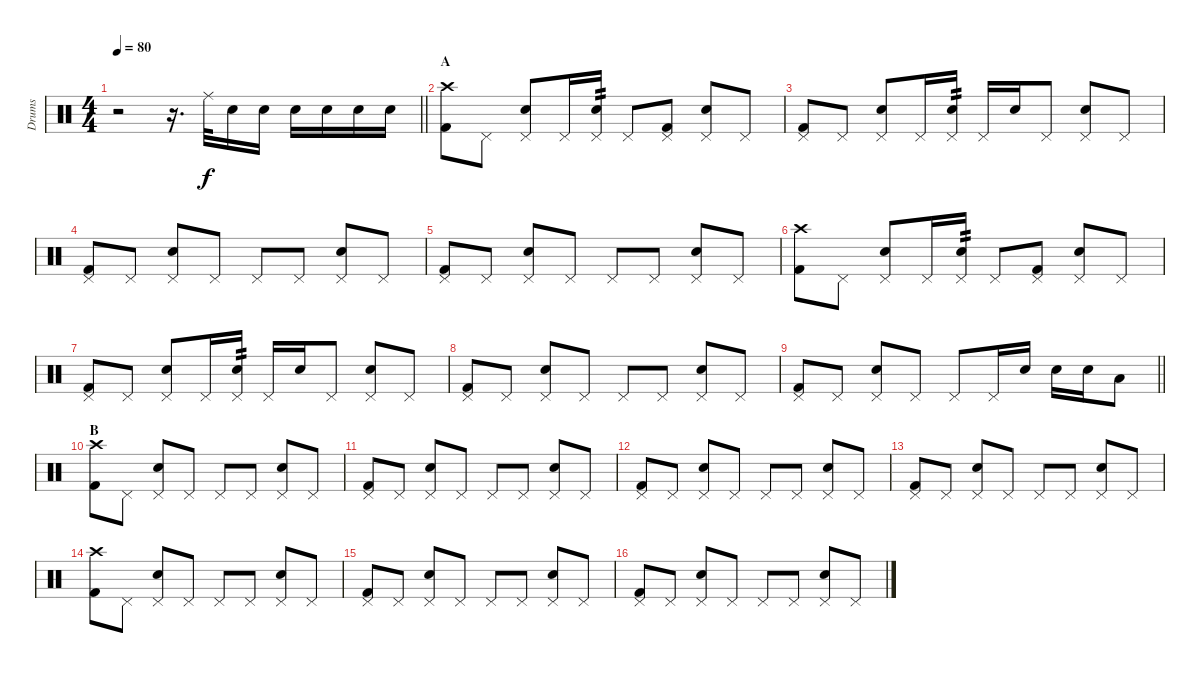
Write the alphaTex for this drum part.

\track ("Drums" "Drums") {instrument percussion}
\staff {score}
\articulation defaults
\ts (4 4)
\tempo 80
\clef neutral
\barLineRight lightlight
\ks c
r.2{dy f} r.16{d} "Ride (middle)".32 "Snare (hit) 2".16 "Snare (hit) 2".16 "Snare (hit) 2".16 "Snare (hit) 2".16 "Snare (hit) 2".16 "Snare (hit) 2".16 |
\section ("" "A")
("Crash high (hit)" "Kick (hit) 2").8 "Pedal Hi-Hat (hit)".8 ("Pedal Hi-Hat (hit)" "Snare (hit) 2").8 "Pedal Hi-Hat (hit)".16 ("Pedal Hi-Hat (hit)" "Snare (hit) 2").16{tp 2} "Pedal Hi-Hat (hit)".8 ("Pedal Hi-Hat (hit)" "Kick (hit) 2").8 ("Pedal Hi-Hat (hit)" "Snare (hit) 2").8 "Pedal Hi-Hat (hit)".8 |
("Pedal Hi-Hat (hit)" "Kick (hit) 2").8 "Pedal Hi-Hat (hit)".8 ("Pedal Hi-Hat (hit)" "Snare (hit) 2").8 "Pedal Hi-Hat (hit)".16 ("Pedal Hi-Hat (hit)" "Snare (hit) 2").16{tp 2} "Pedal Hi-Hat (hit)".16 "Snare (hit) 2".16 "Pedal Hi-Hat (hit)".8 ("Pedal Hi-Hat (hit)" "Snare (hit) 2").8 "Pedal Hi-Hat (hit)".8 |
("Pedal Hi-Hat (hit)" "Kick (hit) 2").8 "Pedal Hi-Hat (hit)".8 ("Pedal Hi-Hat (hit)" "Snare (hit) 2").8 "Pedal Hi-Hat (hit)".8 "Pedal Hi-Hat (hit)".8 "Pedal Hi-Hat (hit)".8 ("Pedal Hi-Hat (hit)" "Snare (hit) 2").8 "Pedal Hi-Hat (hit)".8 |
("Pedal Hi-Hat (hit)" "Kick (hit) 2").8 "Pedal Hi-Hat (hit)".8 ("Pedal Hi-Hat (hit)" "Snare (hit) 2").8 "Pedal Hi-Hat (hit)".8 "Pedal Hi-Hat (hit)".8 "Pedal Hi-Hat (hit)".8 ("Pedal Hi-Hat (hit)" "Snare (hit) 2").8 "Pedal Hi-Hat (hit)".8 |
("Crash high (hit)" "Kick (hit) 2").8 "Pedal Hi-Hat (hit)".8 ("Pedal Hi-Hat (hit)" "Snare (hit) 2").8 "Pedal Hi-Hat (hit)".16 ("Pedal Hi-Hat (hit)" "Snare (hit) 2").16{tp 2} "Pedal Hi-Hat (hit)".8 ("Pedal Hi-Hat (hit)" "Kick (hit) 2").8 ("Pedal Hi-Hat (hit)" "Snare (hit) 2").8 "Pedal Hi-Hat (hit)".8 |
("Pedal Hi-Hat (hit)" "Kick (hit) 2").8 "Pedal Hi-Hat (hit)".8 ("Pedal Hi-Hat (hit)" "Snare (hit) 2").8 "Pedal Hi-Hat (hit)".16 ("Pedal Hi-Hat (hit)" "Snare (hit) 2").16{tp 2} "Pedal Hi-Hat (hit)".16 "Snare (hit) 2".16 "Pedal Hi-Hat (hit)".8 ("Pedal Hi-Hat (hit)" "Snare (hit) 2").8 "Pedal Hi-Hat (hit)".8 |
("Pedal Hi-Hat (hit)" "Kick (hit) 2").8 "Pedal Hi-Hat (hit)".8 ("Pedal Hi-Hat (hit)" "Snare (hit) 2").8 "Pedal Hi-Hat (hit)".8 "Pedal Hi-Hat (hit)".8 "Pedal Hi-Hat (hit)".8 ("Pedal Hi-Hat (hit)" "Snare (hit) 2").8 "Pedal Hi-Hat (hit)".8 |
\barLineRight lightlight
("Pedal Hi-Hat (hit)" "Kick (hit) 2").8 "Pedal Hi-Hat (hit)".8 ("Pedal Hi-Hat (hit)" "Snare (hit) 2").8 "Pedal Hi-Hat (hit)".8 "Pedal Hi-Hat (hit)".8 "Pedal Hi-Hat (hit)".16 "Snare (hit) 2".16 "Snare (hit) 2".16 "Snare (hit) 2".16 "Low Tom (hit)".8 |
\section ("" "B")
("Crash high (hit)" "Kick (hit) 2").8 "Pedal Hi-Hat (hit)".8 ("Pedal Hi-Hat (hit)" "Snare (hit) 2").8 "Pedal Hi-Hat (hit)".8 "Pedal Hi-Hat (hit)".8 "Pedal Hi-Hat (hit)".8 ("Pedal Hi-Hat (hit)" "Snare (hit) 2").8 "Pedal Hi-Hat (hit)".8 |
("Pedal Hi-Hat (hit)" "Kick (hit) 2").8 "Pedal Hi-Hat (hit)".8 ("Pedal Hi-Hat (hit)" "Snare (hit) 2").8 "Pedal Hi-Hat (hit)".8 "Pedal Hi-Hat (hit)".8 "Pedal Hi-Hat (hit)".8 ("Pedal Hi-Hat (hit)" "Snare (hit) 2").8 "Pedal Hi-Hat (hit)".8 |
("Pedal Hi-Hat (hit)" "Kick (hit) 2").8 "Pedal Hi-Hat (hit)".8 ("Pedal Hi-Hat (hit)" "Snare (hit) 2").8 "Pedal Hi-Hat (hit)".8 "Pedal Hi-Hat (hit)".8 "Pedal Hi-Hat (hit)".8 ("Pedal Hi-Hat (hit)" "Snare (hit) 2").8 "Pedal Hi-Hat (hit)".8 |
("Pedal Hi-Hat (hit)" "Kick (hit) 2").8 "Pedal Hi-Hat (hit)".8 ("Pedal Hi-Hat (hit)" "Snare (hit) 2").8 "Pedal Hi-Hat (hit)".8 "Pedal Hi-Hat (hit)".8 "Pedal Hi-Hat (hit)".8 ("Pedal Hi-Hat (hit)" "Snare (hit) 2").8 "Pedal Hi-Hat (hit)".8 |
("Crash high (hit)" "Kick (hit) 2").8 "Pedal Hi-Hat (hit)".8 ("Pedal Hi-Hat (hit)" "Snare (hit) 2").8 "Pedal Hi-Hat (hit)".8 "Pedal Hi-Hat (hit)".8 "Pedal Hi-Hat (hit)".8 ("Pedal Hi-Hat (hit)" "Snare (hit) 2").8 "Pedal Hi-Hat (hit)".8 |
("Pedal Hi-Hat (hit)" "Kick (hit) 2").8 "Pedal Hi-Hat (hit)".8 ("Pedal Hi-Hat (hit)" "Snare (hit) 2").8 "Pedal Hi-Hat (hit)".8 "Pedal Hi-Hat (hit)".8 "Pedal Hi-Hat (hit)".8 ("Pedal Hi-Hat (hit)" "Snare (hit) 2").8 "Pedal Hi-Hat (hit)".8 |
("Pedal Hi-Hat (hit)" "Kick (hit) 2").8 "Pedal Hi-Hat (hit)".8 ("Pedal Hi-Hat (hit)" "Snare (hit) 2").8 "Pedal Hi-Hat (hit)".8 "Pedal Hi-Hat (hit)".8 "Pedal Hi-Hat (hit)".8 ("Pedal Hi-Hat (hit)" "Snare (hit) 2").8 "Pedal Hi-Hat (hit)".8
